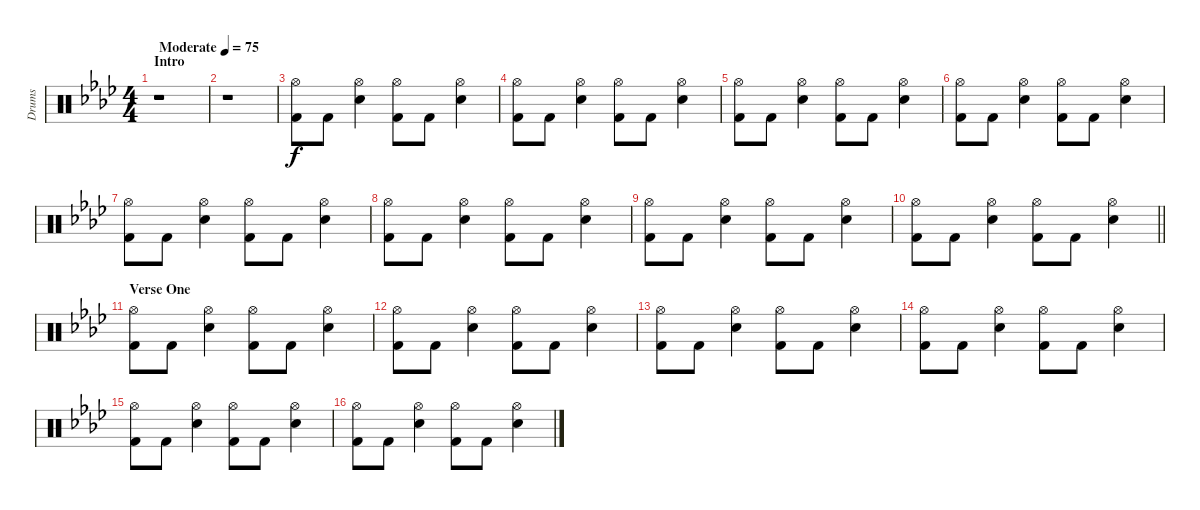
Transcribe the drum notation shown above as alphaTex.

\track ("Drums" "Drums") {instrument percussion}
\staff {score}
\articulation defaults
\ts (4 4)
\section ("" "Intro")
\tempo (75 "Moderate")
\clef neutral
\ks ab
r.1{dy f} |
r.1 |
("Hi-Hat (open)" "Kick (hit) 2").8 "Kick (hit) 2".8 ("Hi-Hat (open)" "Snare (hit) 2").4 ("Hi-Hat (open)" "Kick (hit) 2").8 "Kick (hit) 2".8 ("Hi-Hat (open)" "Snare (hit) 2").4 |
("Hi-Hat (open)" "Kick (hit) 2").8 "Kick (hit) 2".8 ("Hi-Hat (open)" "Snare (hit) 2").4 ("Hi-Hat (open)" "Kick (hit) 2").8 "Kick (hit) 2".8 ("Hi-Hat (open)" "Snare (hit) 2").4 |
("Hi-Hat (open)" "Kick (hit) 2").8 "Kick (hit) 2".8 ("Hi-Hat (open)" "Snare (hit) 2").4 ("Hi-Hat (open)" "Kick (hit) 2").8 "Kick (hit) 2".8 ("Hi-Hat (open)" "Snare (hit) 2").4 |
("Hi-Hat (open)" "Kick (hit) 2").8 "Kick (hit) 2".8 ("Hi-Hat (open)" "Snare (hit) 2").4 ("Hi-Hat (open)" "Kick (hit) 2").8 "Kick (hit) 2".8 ("Hi-Hat (open)" "Snare (hit) 2").4 |
("Hi-Hat (open)" "Kick (hit) 2").8 "Kick (hit) 2".8 ("Hi-Hat (open)" "Snare (hit) 2").4 ("Hi-Hat (open)" "Kick (hit) 2").8 "Kick (hit) 2".8 ("Hi-Hat (open)" "Snare (hit) 2").4 |
("Hi-Hat (open)" "Kick (hit) 2").8 "Kick (hit) 2".8 ("Hi-Hat (open)" "Snare (hit) 2").4 ("Hi-Hat (open)" "Kick (hit) 2").8 "Kick (hit) 2".8 ("Hi-Hat (open)" "Snare (hit) 2").4 |
("Hi-Hat (open)" "Kick (hit) 2").8 "Kick (hit) 2".8 ("Hi-Hat (open)" "Snare (hit) 2").4 ("Hi-Hat (open)" "Kick (hit) 2").8 "Kick (hit) 2".8 ("Hi-Hat (open)" "Snare (hit) 2").4 |
\barLineRight lightlight
("Hi-Hat (open)" "Kick (hit) 2").8 "Kick (hit) 2".8 ("Hi-Hat (open)" "Snare (hit) 2").4 ("Hi-Hat (open)" "Kick (hit) 2").8 "Kick (hit) 2".8 ("Hi-Hat (open)" "Snare (hit) 2").4 |
\section ("" "Verse One")
("Hi-Hat (open)" "Kick (hit) 2").8 "Kick (hit) 2".8 ("Hi-Hat (open)" "Snare (hit) 2").4 ("Hi-Hat (open)" "Kick (hit) 2").8 "Kick (hit) 2".8 ("Hi-Hat (open)" "Snare (hit) 2").4 |
("Hi-Hat (open)" "Kick (hit) 2").8 "Kick (hit) 2".8 ("Hi-Hat (open)" "Snare (hit) 2").4 ("Hi-Hat (open)" "Kick (hit) 2").8 "Kick (hit) 2".8 ("Hi-Hat (open)" "Snare (hit) 2").4 |
("Hi-Hat (open)" "Kick (hit) 2").8 "Kick (hit) 2".8 ("Hi-Hat (open)" "Snare (hit) 2").4 ("Hi-Hat (open)" "Kick (hit) 2").8 "Kick (hit) 2".8 ("Hi-Hat (open)" "Snare (hit) 2").4 |
("Hi-Hat (open)" "Kick (hit) 2").8 "Kick (hit) 2".8 ("Hi-Hat (open)" "Snare (hit) 2").4 ("Hi-Hat (open)" "Kick (hit) 2").8 "Kick (hit) 2".8 ("Hi-Hat (open)" "Snare (hit) 2").4 |
("Hi-Hat (open)" "Kick (hit) 2").8 "Kick (hit) 2".8 ("Hi-Hat (open)" "Snare (hit) 2").4 ("Hi-Hat (open)" "Kick (hit) 2").8 "Kick (hit) 2".8 ("Hi-Hat (open)" "Snare (hit) 2").4 |
("Hi-Hat (open)" "Kick (hit) 2").8 "Kick (hit) 2".8 ("Hi-Hat (open)" "Snare (hit) 2").4 ("Hi-Hat (open)" "Kick (hit) 2").8 "Kick (hit) 2".8 ("Hi-Hat (open)" "Snare (hit) 2").4
